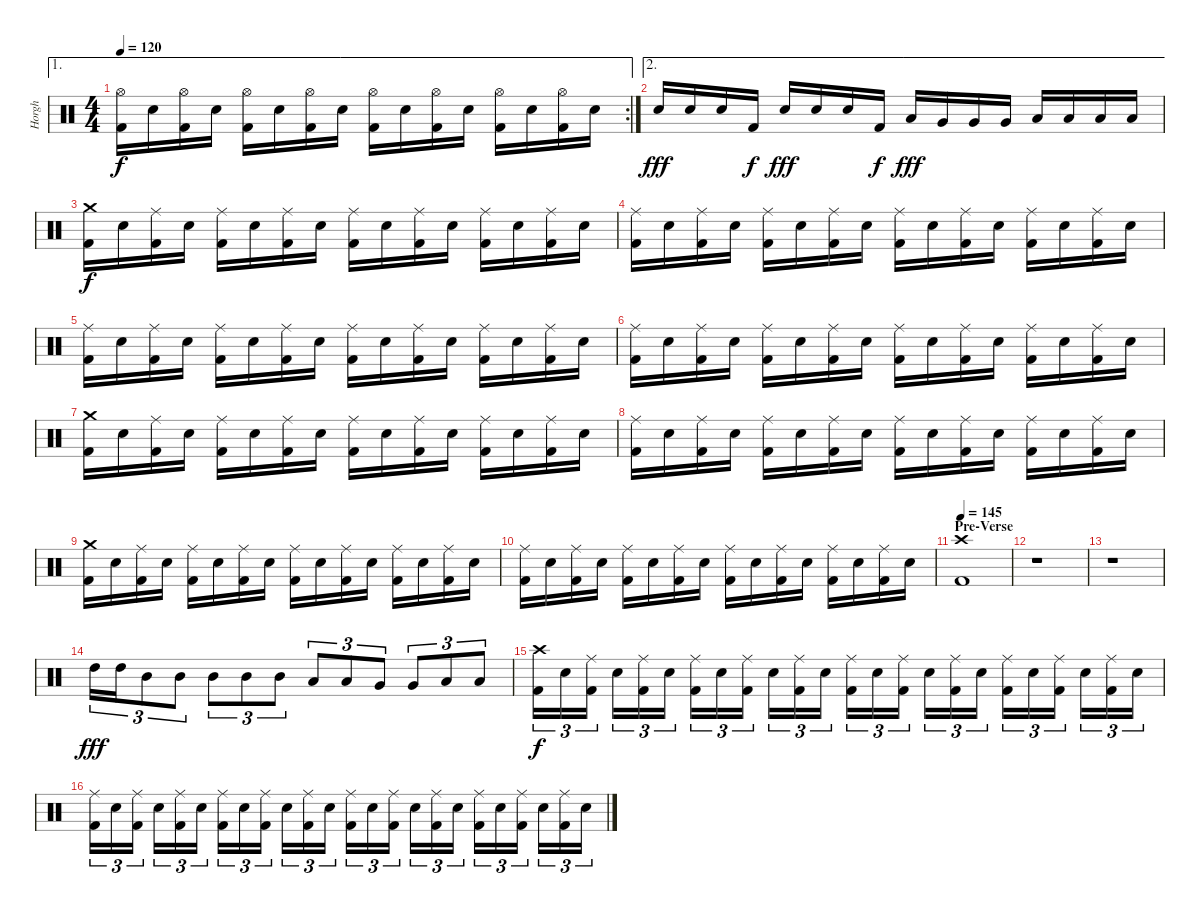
\track ("Horgh" "Horgh") {instrument percussion}
\staff {score}
\articulation defaults
\ae 1
\rc 2
\ts (4 4)
\tempo 120
\clef neutral
\ks c
("Hi-Hat (open)" "Kick (hit) 2").16{dy f} "Electric Snare (hit)".16 ("Hi-Hat (open)" "Kick (hit) 2").16 "Electric Snare (hit)".16 ("Hi-Hat (open)" "Kick (hit) 2").16 "Electric Snare (hit)".16 ("Hi-Hat (open)" "Kick (hit) 2").16 "Electric Snare (hit)".16 ("Hi-Hat (open)" "Kick (hit) 2").16 "Electric Snare (hit)".16 ("Hi-Hat (open)" "Kick (hit) 2").16 "Electric Snare (hit)".16 ("Hi-Hat (open)" "Kick (hit) 2").16 "Electric Snare (hit)".16 ("Hi-Hat (open)" "Kick (hit) 2").16 "Electric Snare (hit)".16 |
\ae 2 "Electric Snare (hit)".16{dy fff} "Electric Snare (hit)".16 "Electric Snare (hit)".16 "Kick (hit) 2".16{dy f} "Electric Snare (hit)".16{dy fff} "Electric Snare (hit)".16 "Electric Snare (hit)".16 "Kick (hit) 2".16{dy f} "Low Tom (hit)".16{dy fff} "Very Low Tom (hit)".16 "Very Low Tom (hit)".16 "Very Low Tom (hit)".16 "Low Floor Tom (hit)".16 "Low Floor Tom (hit)".16 "Low Floor Tom (hit)".16 "Low Floor Tom (hit)".16
|
("Crash medium (hit)" "Kick (hit) 2").16{dy f} "Electric Snare (hit)".16 ("Ride (middle)" "Kick (hit) 2").16 "Electric Snare (hit)".16 ("Ride (middle)" "Kick (hit) 2").16 "Electric Snare (hit)".16 ("Ride (middle)" "Kick (hit) 2").16 "Electric Snare (hit)".16 ("Ride (middle)" "Kick (hit) 2").16 "Electric Snare (hit)".16 ("Ride (middle)" "Kick (hit) 2").16 "Electric Snare (hit)".16 ("Ride (middle)" "Kick (hit) 2").16 "Electric Snare (hit)".16 ("Ride (middle)" "Kick (hit) 2").16 "Electric Snare (hit)".16 |
("Ride (middle)" "Kick (hit) 2").16 "Electric Snare (hit)".16 ("Ride (middle)" "Kick (hit) 2").16 "Electric Snare (hit)".16 ("Ride (middle)" "Kick (hit) 2").16 "Electric Snare (hit)".16 ("Ride (middle)" "Kick (hit) 2").16 "Electric Snare (hit)".16 ("Ride (middle)" "Kick (hit) 2").16 "Electric Snare (hit)".16 ("Ride (middle)" "Kick (hit) 2").16 "Electric Snare (hit)".16 ("Ride (middle)" "Kick (hit) 2").16 "Electric Snare (hit)".16 ("Ride (middle)" "Kick (hit) 2").16 "Electric Snare (hit)".16 |
("Ride (middle)" "Kick (hit) 2").16 "Electric Snare (hit)".16 ("Ride (middle)" "Kick (hit) 2").16 "Electric Snare (hit)".16 ("Ride (middle)" "Kick (hit) 2").16 "Electric Snare (hit)".16 ("Ride (middle)" "Kick (hit) 2").16 "Electric Snare (hit)".16 ("Ride (middle)" "Kick (hit) 2").16 "Electric Snare (hit)".16 ("Ride (middle)" "Kick (hit) 2").16 "Electric Snare (hit)".16 ("Ride (middle)" "Kick (hit) 2").16 "Electric Snare (hit)".16 ("Ride (middle)" "Kick (hit) 2").16 "Electric Snare (hit)".16 |
("Ride (middle)" "Kick (hit) 2").16 "Electric Snare (hit)".16 ("Ride (middle)" "Kick (hit) 2").16 "Electric Snare (hit)".16 ("Ride (middle)" "Kick (hit) 2").16 "Electric Snare (hit)".16 ("Ride (middle)" "Kick (hit) 2").16 "Electric Snare (hit)".16 ("Ride (middle)" "Kick (hit) 2").16 "Electric Snare (hit)".16 ("Ride (middle)" "Kick (hit) 2").16 "Electric Snare (hit)".16 ("Ride (middle)" "Kick (hit) 2").16 "Electric Snare (hit)".16 ("Ride (middle)" "Kick (hit) 2").16 "Electric Snare (hit)".16 |
("Crash medium (hit)" "Kick (hit) 2").16 "Electric Snare (hit)".16 ("Ride (middle)" "Kick (hit) 2").16 "Electric Snare (hit)".16 ("Ride (middle)" "Kick (hit) 2").16 "Electric Snare (hit)".16 ("Ride (middle)" "Kick (hit) 2").16 "Electric Snare (hit)".16 ("Ride (middle)" "Kick (hit) 2").16 "Electric Snare (hit)".16 ("Ride (middle)" "Kick (hit) 2").16 "Electric Snare (hit)".16 ("Ride (middle)" "Kick (hit) 2").16 "Electric Snare (hit)".16 ("Ride (middle)" "Kick (hit) 2").16 "Electric Snare (hit)".16 |
("Ride (middle)" "Kick (hit) 2").16 "Electric Snare (hit)".16 ("Ride (middle)" "Kick (hit) 2").16 "Electric Snare (hit)".16 ("Ride (middle)" "Kick (hit) 2").16 "Electric Snare (hit)".16 ("Ride (middle)" "Kick (hit) 2").16 "Electric Snare (hit)".16 ("Ride (middle)" "Kick (hit) 2").16 "Electric Snare (hit)".16 ("Ride (middle)" "Kick (hit) 2").16 "Electric Snare (hit)".16 ("Ride (middle)" "Kick (hit) 2").16 "Electric Snare (hit)".16 ("Ride (middle)" "Kick (hit) 2").16 "Electric Snare (hit)".16 |
("Crash medium (hit)" "Kick (hit) 2").16 "Electric Snare (hit)".16 ("Ride (middle)" "Kick (hit) 2").16 "Electric Snare (hit)".16 ("Ride (middle)" "Kick (hit) 2").16 "Electric Snare (hit)".16 ("Ride (middle)" "Kick (hit) 2").16 "Electric Snare (hit)".16 ("Ride (middle)" "Kick (hit) 2").16 "Electric Snare (hit)".16 ("Ride (middle)" "Kick (hit) 2").16 "Electric Snare (hit)".16 ("Ride (middle)" "Kick (hit) 2").16 "Electric Snare (hit)".16 ("Ride (middle)" "Kick (hit) 2").16 "Electric Snare (hit)".16 |
("Ride (middle)" "Kick (hit) 2").16 "Electric Snare (hit)".16 ("Ride (middle)" "Kick (hit) 2").16 "Electric Snare (hit)".16 ("Ride (middle)" "Kick (hit) 2").16 "Electric Snare (hit)".16 ("Ride (middle)" "Kick (hit) 2").16 "Electric Snare (hit)".16 ("Ride (middle)" "Kick (hit) 2").16 "Electric Snare (hit)".16 ("Ride (middle)" "Kick (hit) 2").16 "Electric Snare (hit)".16 ("Ride (middle)" "Kick (hit) 2").16 "Electric Snare (hit)".16 ("Ride (middle)" "Kick (hit) 2").16 "Electric Snare (hit)".16 |
\section ("" "Pre-Verse")
\tempo 145
("Crash high (hit)" "Kick (hit) 2").1 |
r.1 |
r.1 |
"High Tom (hit)".16{tu (3 2) dy fff} "High Tom (hit)".16{tu (3 2)} "Mid Tom (hit)".8{tu (3 2)} "Mid Tom (hit)".8{tu (3 2)} "Mid Tom (hit)".8{tu (3 2)} "Mid Tom (hit)".8{tu (3 2)} "Mid Tom (hit)".8{tu (3 2)} "Low Tom (hit)".8{tu (3 2)} "Low Tom (hit)".8{tu (3 2)} "Very Low Tom (hit)".8{tu (3 2)} "Very Low Tom (hit)".8{tu (3 2)} "Low Floor Tom (hit)".8{tu (3 2)} "Low Floor Tom (hit)".8{tu (3 2)} |
("Crash high (hit)" "Kick (hit) 2").16{tu (3 2) dy f} "Electric Snare (hit)".16{tu (3 2)} ("Ride (middle)" "Kick (hit) 2").16{tu (3 2)} "Electric Snare (hit)".16{tu (3 2)} ("Ride (middle)" "Kick (hit) 2").16{tu (3 2)} "Electric Snare (hit)".16{tu (3 2)} ("Ride (middle)" "Kick (hit) 2").16{tu (3 2)} "Electric Snare (hit)".16{tu (3 2)} ("Ride (middle)" "Kick (hit) 2").16{tu (3 2)} "Electric Snare (hit)".16{tu (3 2)} ("Ride (middle)" "Kick (hit) 2").16{tu (3 2)} "Electric Snare (hit)".16{tu (3 2)} ("Ride (middle)" "Kick (hit) 2").16{tu (3 2)} "Electric Snare (hit)".16{tu (3 2)} ("Ride (middle)" "Kick (hit) 2").16{tu (3 2)} "Electric Snare (hit)".16{tu (3 2)} ("Ride (middle)" "Kick (hit) 2").16{tu (3 2)} "Electric Snare (hit)".16{tu (3 2)} ("Ride (middle)" "Kick (hit) 2").16{tu (3 2)} "Electric Snare (hit)".16{tu (3 2)} ("Ride (middle)" "Kick (hit) 2").16{tu (3 2)} "Electric Snare (hit)".16{tu (3 2)} ("Ride (middle)" "Kick (hit) 2").16{tu (3 2)} "Electric Snare (hit)".16{tu (3 2)} |
("Ride (middle)" "Kick (hit) 2").16{tu (3 2)} "Electric Snare (hit)".16{tu (3 2)} ("Ride (middle)" "Kick (hit) 2").16{tu (3 2)} "Electric Snare (hit)".16{tu (3 2)} ("Ride (middle)" "Kick (hit) 2").16{tu (3 2)} "Electric Snare (hit)".16{tu (3 2)} ("Ride (middle)" "Kick (hit) 2").16{tu (3 2)} "Electric Snare (hit)".16{tu (3 2)} ("Ride (middle)" "Kick (hit) 2").16{tu (3 2)} "Electric Snare (hit)".16{tu (3 2)} ("Ride (middle)" "Kick (hit) 2").16{tu (3 2)} "Electric Snare (hit)".16{tu (3 2)} ("Ride (middle)" "Kick (hit) 2").16{tu (3 2)} "Electric Snare (hit)".16{tu (3 2)} ("Ride (middle)" "Kick (hit) 2").16{tu (3 2)} "Electric Snare (hit)".16{tu (3 2)} ("Ride (middle)" "Kick (hit) 2").16{tu (3 2)} "Electric Snare (hit)".16{tu (3 2)} ("Ride (middle)" "Kick (hit) 2").16{tu (3 2)} "Electric Snare (hit)".16{tu (3 2)} ("Ride (middle)" "Kick (hit) 2").16{tu (3 2)} "Electric Snare (hit)".16{tu (3 2)} ("Ride (middle)" "Kick (hit) 2").16{tu (3 2)} "Electric Snare (hit)".16{tu (3 2)}
